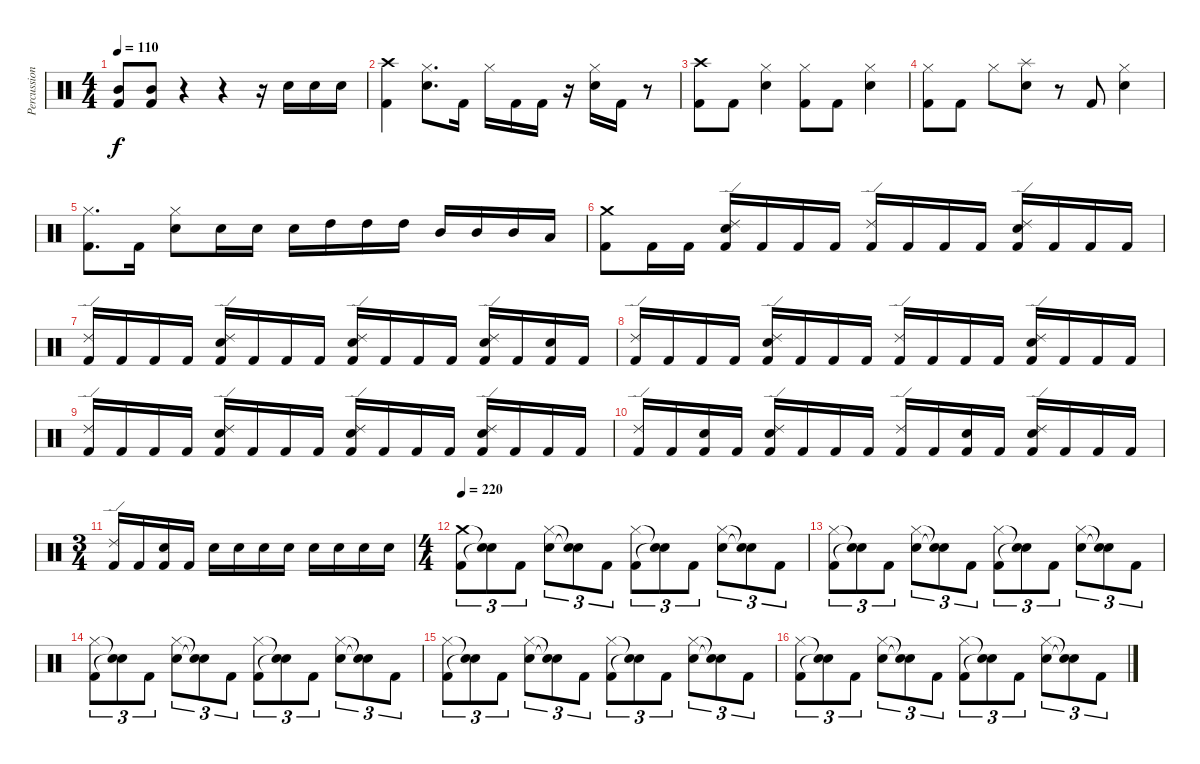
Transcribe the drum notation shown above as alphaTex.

\track ("Percussions" "Percussion") {instrument percussion}
\staff {score}
\articulation defaults
\ts (4 4)
\tempo 110
\clef neutral
\ks c
("Mid Tom (hit)" "Kick (hit) 2").8{dy f} ("Mid Tom (hit)" "Kick (hit) 2").8 r.4 r.4 r.16 "Electric Snare (hit)".16 "Electric Snare (hit)".16 "Electric Snare (hit)".16 |
("Crash high (hit)" "Kick (hit) 2").4 ("Hi-Hat (closed)" "Electric Snare (hit)").8{d} "Kick (hit) 2".16 "Hi-Hat (closed)".16 "Kick (hit) 2".16 "Kick (hit) 2".16 r.16 ("Hi-Hat (closed)" "Electric Snare (hit)").16 "Kick (hit) 2".16 r.8 |
("Crash high (hit)" "Kick (hit) 2").8 "Kick (hit) 2".8 ("Hi-Hat (closed)" "Electric Snare (hit)").4 ("Hi-Hat (closed)" "Kick (hit) 2").8 "Kick (hit) 2".8 ("Hi-Hat (closed)" "Electric Snare (hit)").4 |
("Hi-Hat (closed)" "Kick (hit) 2").8 "Kick (hit) 2".8 "Hi-Hat (closed)".8 ("Splash (hit)" "Electric Snare (hit)").8 r.8 "Kick (hit) 2".8 ("Hi-Hat (closed)" "Electric Snare (hit)").4 |
("Hi-Hat (closed)" "Kick (hit) 2").8{d} "Kick (hit) 2".16 ("Hi-Hat (closed)" "Electric Snare (hit)").8 "Electric Snare (hit)".16 "Electric Snare (hit)".16 "Electric Snare (hit)".16 "High Tom (hit)".16 "High Tom (hit)".16 "High Tom (hit)".16 "Mid Tom (hit)".16 "Mid Tom (hit)".16 "Mid Tom (hit)".16 "Low Tom (hit)".16 |
("Crash medium (hit)" "Kick (hit) 2").8 "Kick (hit) 2".16 "Kick (hit) 2".16 ("Ride (edge) 2" "Electric Snare (hit)" "Kick (hit) 2").16 "Kick (hit) 2".16 "Kick (hit) 2".16 "Kick (hit) 2".16 ("Ride (edge) 2" "Kick (hit) 2").16 "Kick (hit) 2".16 "Kick (hit) 2".16 "Kick (hit) 2".16 ("Ride (edge) 2" "Electric Snare (hit)" "Kick (hit) 2").16 "Kick (hit) 2".16 "Kick (hit) 2".16 "Kick (hit) 2".16 |
("Ride (edge) 2" "Kick (hit) 2").16 "Kick (hit) 2".16 "Kick (hit) 2".16 "Kick (hit) 2".16 ("Ride (edge) 2" "Electric Snare (hit)" "Kick (hit) 2").16 "Kick (hit) 2".16 "Kick (hit) 2".16 "Kick (hit) 2".16 ("Ride (edge) 2" "Electric Snare (hit)" "Kick (hit) 2").16 "Kick (hit) 2".16 "Kick (hit) 2".16 "Kick (hit) 2".16 ("Ride (edge) 2" "Electric Snare (hit)" "Kick (hit) 2").16 "Kick (hit) 2".16 ("Electric Snare (hit)" "Kick (hit) 2").16 "Kick (hit) 2".16 |
("Ride (edge) 2" "Kick (hit) 2").16 "Kick (hit) 2".16 "Kick (hit) 2".16 "Kick (hit) 2".16 ("Ride (edge) 2" "Electric Snare (hit)" "Kick (hit) 2").16 "Kick (hit) 2".16 "Kick (hit) 2".16 "Kick (hit) 2".16 ("Ride (edge) 2" "Kick (hit) 2").16 "Kick (hit) 2".16 "Kick (hit) 2".16 "Kick (hit) 2".16 ("Ride (edge) 2" "Electric Snare (hit)" "Kick (hit) 2").16 "Kick (hit) 2".16 "Kick (hit) 2".16 "Kick (hit) 2".16 |
("Ride (edge) 2" "Kick (hit) 2").16 "Kick (hit) 2".16 "Kick (hit) 2".16 "Kick (hit) 2".16 ("Ride (edge) 2" "Electric Snare (hit)" "Kick (hit) 2").16 "Kick (hit) 2".16 "Kick (hit) 2".16 "Kick (hit) 2".16 ("Ride (edge) 2" "Electric Snare (hit)" "Kick (hit) 2").16 "Kick (hit) 2".16 "Kick (hit) 2".16 "Kick (hit) 2".16 ("Ride (edge) 2" "Electric Snare (hit)" "Kick (hit) 2").16 "Kick (hit) 2".16 "Kick (hit) 2".16 "Kick (hit) 2".16 |
("Ride (edge) 2" "Kick (hit) 2").16 "Kick (hit) 2".16 ("Electric Snare (hit)" "Kick (hit) 2").16 "Kick (hit) 2".16 ("Ride (edge) 2" "Electric Snare (hit)" "Kick (hit) 2").16 "Kick (hit) 2".16 "Kick (hit) 2".16 "Kick (hit) 2".16 ("Ride (edge) 2" "Kick (hit) 2").16 "Kick (hit) 2".16 ("Electric Snare (hit)" "Kick (hit) 2").16 "Kick (hit) 2".16 ("Ride (edge) 2" "Electric Snare (hit)" "Kick (hit) 2").16 "Kick (hit) 2".16 "Kick (hit) 2".16 "Kick (hit) 2".16 |
\ts (3 4)
("Ride (edge) 2" "Kick (hit) 2").16 "Kick (hit) 2".16 ("Electric Snare (hit)" "Kick (hit) 2").16 "Kick (hit) 2".16 "Electric Snare (hit)".16 "Electric Snare (hit)".16 "Electric Snare (hit)".16 "Electric Snare (hit)".16 "Electric Snare (hit)".16 "Electric Snare (hit)".16 "Electric Snare (hit)".16 "Electric Snare (hit)".16 |
\ts (4 4)
\tempo 220
("Crash medium (hit)" "Kick (hit) 2").8{tu (3 2)} ("Snare (hit)"{t} "Snare (hit)"{t}).8{tu (3 2)} "Kick (hit) 2".8{tu (3 2)} ("Hi-Hat (closed)" "Electric Snare (hit)").8{tu (3 2)} ("Snare (hit)"{t} "Snare (hit)"{t}).8{tu (3 2)} "Kick (hit) 2".8{tu (3 2)} ("Hi-Hat (closed)" "Kick (hit) 2").8{tu (3 2)} ("Snare (hit)"{t} "Snare (hit)"{t}).8{tu (3 2)} "Kick (hit) 2".8{tu (3 2)} ("Hi-Hat (closed)" "Electric Snare (hit)").8{tu (3 2)} ("Snare (hit)"{t} "Snare (hit)"{t}).8{tu (3 2)} "Kick (hit) 2".8{tu (3 2)} |
("Hi-Hat (closed)" "Kick (hit) 2").8{tu (3 2)} ("Snare (hit)"{t} "Snare (hit)"{t}).8{tu (3 2)} "Kick (hit) 2".8{tu (3 2)} ("Hi-Hat (closed)" "Electric Snare (hit)").8{tu (3 2)} ("Snare (hit)"{t} "Snare (hit)"{t}).8{tu (3 2)} "Kick (hit) 2".8{tu (3 2)} ("Hi-Hat (closed)" "Kick (hit) 2").8{tu (3 2)} ("Snare (hit)"{t} "Snare (hit)"{t}).8{tu (3 2)} "Kick (hit) 2".8{tu (3 2)} ("Hi-Hat (closed)" "Electric Snare (hit)").8{tu (3 2)} ("Snare (hit)"{t} "Snare (hit)"{t}).8{tu (3 2)} "Kick (hit) 2".8{tu (3 2)} |
("Hi-Hat (closed)" "Kick (hit) 2").8{tu (3 2)} ("Snare (hit)"{t} "Snare (hit)"{t}).8{tu (3 2)} "Kick (hit) 2".8{tu (3 2)} ("Hi-Hat (closed)" "Electric Snare (hit)").8{tu (3 2)} ("Snare (hit)"{t} "Snare (hit)"{t}).8{tu (3 2)} "Kick (hit) 2".8{tu (3 2)} ("Hi-Hat (closed)" "Kick (hit) 2").8{tu (3 2)} ("Snare (hit)"{t} "Snare (hit)"{t}).8{tu (3 2)} "Kick (hit) 2".8{tu (3 2)} ("Hi-Hat (closed)" "Electric Snare (hit)").8{tu (3 2)} ("Snare (hit)"{t} "Snare (hit)"{t}).8{tu (3 2)} "Kick (hit) 2".8{tu (3 2)} |
("Hi-Hat (closed)" "Kick (hit) 2").8{tu (3 2)} ("Snare (hit)"{t} "Snare (hit)"{t}).8{tu (3 2)} "Kick (hit) 2".8{tu (3 2)} ("Hi-Hat (closed)" "Electric Snare (hit)").8{tu (3 2)} ("Snare (hit)"{t} "Snare (hit)"{t}).8{tu (3 2)} "Kick (hit) 2".8{tu (3 2)} ("Hi-Hat (closed)" "Kick (hit) 2").8{tu (3 2)} ("Snare (hit)"{t} "Snare (hit)"{t}).8{tu (3 2)} "Kick (hit) 2".8{tu (3 2)} ("Hi-Hat (closed)" "Electric Snare (hit)").8{tu (3 2)} ("Snare (hit)"{t} "Snare (hit)"{t}).8{tu (3 2)} "Kick (hit) 2".8{tu (3 2)} |
("Hi-Hat (closed)" "Kick (hit) 2").8{tu (3 2)} ("Snare (hit)"{t} "Snare (hit)"{t}).8{tu (3 2)} "Kick (hit) 2".8{tu (3 2)} ("Hi-Hat (closed)" "Electric Snare (hit)").8{tu (3 2)} ("Snare (hit)"{t} "Snare (hit)"{t}).8{tu (3 2)} "Kick (hit) 2".8{tu (3 2)} ("Hi-Hat (closed)" "Kick (hit) 2").8{tu (3 2)} ("Snare (hit)"{t} "Snare (hit)"{t}).8{tu (3 2)} "Kick (hit) 2".8{tu (3 2)} ("Hi-Hat (closed)" "Electric Snare (hit)").8{tu (3 2)} ("Snare (hit)"{t} "Snare (hit)"{t}).8{tu (3 2)} "Kick (hit) 2".8{tu (3 2)}
